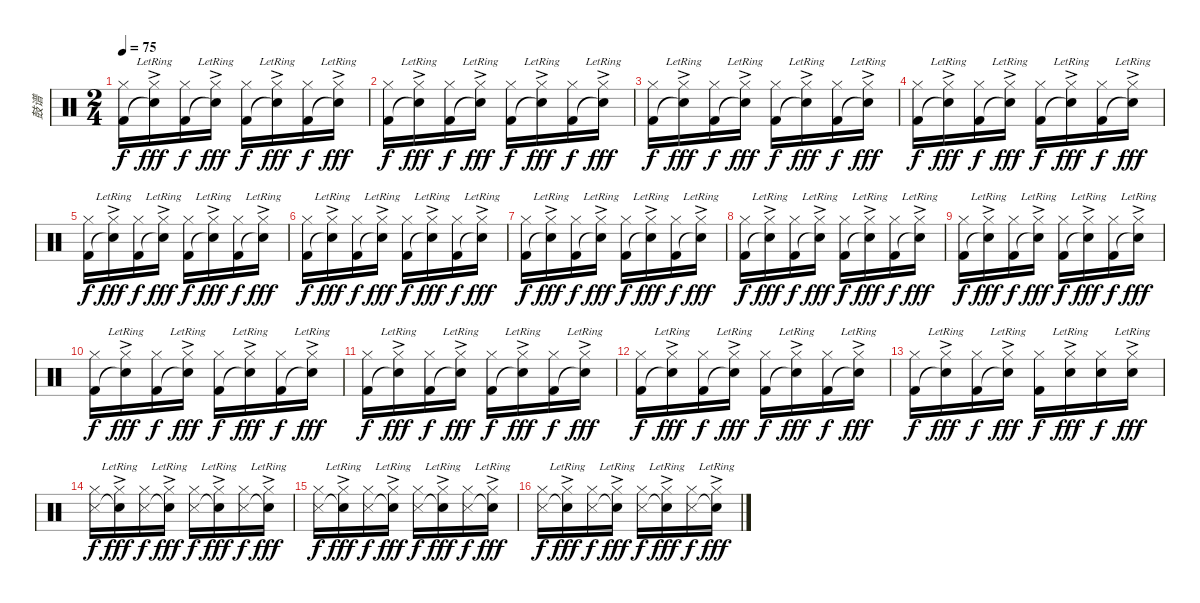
\track ("鼓谱" "鼓谱") {instrument percussion}
\staff {score}
\articulation defaults
\ts (2 4)
\tempo 75
\clef neutral
\ks c
("Kick (hit) 2" "Hi-Hat (closed)").16{dy f} ("Snare (hit)"{t} "Hi-Hat (closed)"{ac lr}).16{dy fff} ("Kick (hit) 2" "Hi-Hat (closed)").16{dy f} ("Snare (hit)"{t} "Hi-Hat (closed)"{ac lr}).16{dy fff} ("Kick (hit) 2" "Hi-Hat (closed)").16{dy f} ("Snare (hit)"{t} "Hi-Hat (closed)"{ac lr}).16{dy fff} ("Kick (hit) 2" "Hi-Hat (closed)").16{dy f} ("Snare (hit)"{t} "Hi-Hat (closed)"{ac lr}).16{dy fff} |
("Kick (hit) 2" "Hi-Hat (closed)").16{dy f} ("Snare (hit)"{t} "Hi-Hat (closed)"{ac lr}).16{dy fff} ("Kick (hit) 2" "Hi-Hat (closed)").16{dy f} ("Snare (hit)"{t} "Hi-Hat (closed)"{ac lr}).16{dy fff} ("Kick (hit) 2" "Hi-Hat (closed)").16{dy f} ("Snare (hit)"{t} "Hi-Hat (closed)"{ac lr}).16{dy fff} ("Kick (hit) 2" "Hi-Hat (closed)").16{dy f} ("Snare (hit)"{t} "Hi-Hat (closed)"{ac lr}).16{dy fff} |
("Kick (hit) 2" "Hi-Hat (closed)").16{dy f} ("Snare (hit)"{t} "Hi-Hat (closed)"{ac lr}).16{dy fff} ("Kick (hit) 2" "Hi-Hat (closed)").16{dy f} ("Snare (hit)"{t} "Hi-Hat (closed)"{ac lr}).16{dy fff} ("Kick (hit) 2" "Hi-Hat (closed)").16{dy f} ("Snare (hit)"{t} "Hi-Hat (closed)"{ac lr}).16{dy fff} ("Kick (hit) 2" "Hi-Hat (closed)").16{dy f} ("Snare (hit)"{t} "Hi-Hat (closed)"{ac lr}).16{dy fff} |
("Kick (hit) 2" "Hi-Hat (closed)").16{dy f} ("Snare (hit)"{t} "Hi-Hat (closed)"{ac lr}).16{dy fff} ("Kick (hit) 2" "Hi-Hat (closed)").16{dy f} ("Snare (hit)"{t} "Hi-Hat (closed)"{ac lr}).16{dy fff} ("Kick (hit) 2" "Hi-Hat (closed)").16{dy f} ("Snare (hit)"{t} "Hi-Hat (closed)"{ac lr}).16{dy fff} ("Kick (hit) 2" "Hi-Hat (closed)").16{dy f} ("Snare (hit)"{t} "Hi-Hat (closed)"{ac lr}).16{dy fff} |
("Kick (hit) 2" "Hi-Hat (closed)").16{dy f} ("Snare (hit)"{t} "Hi-Hat (closed)"{ac lr}).16{dy fff} ("Kick (hit) 2" "Hi-Hat (closed)").16{dy f} ("Snare (hit)"{t} "Hi-Hat (closed)"{ac lr}).16{dy fff} ("Kick (hit) 2" "Hi-Hat (closed)").16{dy f} ("Snare (hit)"{t} "Hi-Hat (closed)"{ac lr}).16{dy fff} ("Kick (hit) 2" "Hi-Hat (closed)").16{dy f} ("Snare (hit)"{t} "Hi-Hat (closed)"{ac lr}).16{dy fff} |
("Kick (hit) 2" "Hi-Hat (closed)").16{dy f} ("Snare (hit)"{t} "Hi-Hat (closed)"{ac lr}).16{dy fff} ("Kick (hit) 2" "Hi-Hat (closed)").16{dy f} ("Snare (hit)"{t} "Hi-Hat (closed)"{ac lr}).16{dy fff} ("Kick (hit) 2" "Hi-Hat (closed)").16{dy f} ("Snare (hit)"{t} "Hi-Hat (closed)"{ac lr}).16{dy fff} ("Kick (hit) 2" "Hi-Hat (closed)").16{dy f} ("Snare (hit)"{t} "Hi-Hat (closed)"{ac lr}).16{dy fff} |
("Kick (hit) 2" "Hi-Hat (closed)").16{dy f} ("Snare (hit)"{t} "Hi-Hat (closed)"{ac lr}).16{dy fff} ("Kick (hit) 2" "Hi-Hat (closed)").16{dy f} ("Snare (hit)"{t} "Hi-Hat (closed)"{ac lr}).16{dy fff} ("Kick (hit) 2" "Hi-Hat (closed)").16{dy f} ("Snare (hit)"{t} "Hi-Hat (closed)"{ac lr}).16{dy fff} ("Kick (hit) 2" "Hi-Hat (closed)").16{dy f} ("Snare (hit)"{t} "Hi-Hat (closed)"{ac lr}).16{dy fff} |
("Kick (hit) 2" "Hi-Hat (closed)").16{dy f} ("Snare (hit)"{t} "Hi-Hat (closed)"{ac lr}).16{dy fff} ("Kick (hit) 2" "Hi-Hat (closed)").16{dy f} ("Snare (hit)"{t} "Hi-Hat (closed)"{ac lr}).16{dy fff} ("Kick (hit) 2" "Hi-Hat (closed)").16{dy f} ("Snare (hit)"{t} "Hi-Hat (closed)"{ac lr}).16{dy fff} ("Kick (hit) 2" "Hi-Hat (closed)").16{dy f} ("Snare (hit)"{t} "Hi-Hat (closed)"{ac lr}).16{dy fff} |
("Kick (hit) 2" "Hi-Hat (closed)").16{dy f} ("Snare (hit)"{t} "Hi-Hat (closed)"{ac lr}).16{dy fff} ("Kick (hit) 2" "Hi-Hat (closed)").16{dy f} ("Snare (hit)"{t} "Hi-Hat (closed)"{ac lr}).16{dy fff} ("Kick (hit) 2" "Hi-Hat (closed)").16{dy f} ("Snare (hit)"{t} "Hi-Hat (closed)"{ac lr}).16{dy fff} ("Kick (hit) 2" "Hi-Hat (closed)").16{dy f} ("Snare (hit)"{t} "Hi-Hat (closed)"{ac lr}).16{dy fff} |
("Kick (hit) 2" "Hi-Hat (closed)").16{dy f} ("Snare (hit)"{t} "Hi-Hat (closed)"{ac lr}).16{dy fff} ("Kick (hit) 2" "Hi-Hat (closed)").16{dy f} ("Snare (hit)"{t} "Hi-Hat (closed)"{ac lr}).16{dy fff} ("Kick (hit) 2" "Hi-Hat (closed)").16{dy f} ("Snare (hit)"{t} "Hi-Hat (closed)"{ac lr}).16{dy fff} ("Kick (hit) 2" "Hi-Hat (closed)").16{dy f} ("Snare (hit)"{t} "Hi-Hat (closed)"{ac lr}).16{dy fff} |
("Kick (hit) 2" "Hi-Hat (closed)").16{dy f} ("Snare (hit)"{t} "Hi-Hat (closed)"{ac lr}).16{dy fff} ("Kick (hit) 2" "Hi-Hat (closed)").16{dy f} ("Snare (hit)"{t} "Hi-Hat (closed)"{ac lr}).16{dy fff} ("Kick (hit) 2" "Hi-Hat (closed)").16{dy f} ("Snare (hit)"{t} "Hi-Hat (closed)"{ac lr}).16{dy fff} ("Kick (hit) 2" "Hi-Hat (closed)").16{dy f} ("Snare (hit)"{t} "Hi-Hat (closed)"{ac lr}).16{dy fff} |
("Kick (hit) 2" "Hi-Hat (closed)").16{dy f} ("Snare (hit)"{t} "Hi-Hat (closed)"{ac lr}).16{dy fff} ("Kick (hit) 2" "Hi-Hat (closed)").16{dy f} ("Snare (hit)"{t} "Hi-Hat (closed)"{ac lr}).16{dy fff} ("Kick (hit) 2" "Hi-Hat (closed)").16{dy f} ("Snare (hit)"{t} "Hi-Hat (closed)"{ac lr}).16{dy fff} ("Kick (hit) 2" "Hi-Hat (closed)").16{dy f} ("Snare (hit)"{t} "Hi-Hat (closed)"{ac lr}).16{dy fff} |
("Kick (hit) 2" "Hi-Hat (closed)").16{dy f} ("Snare (hit)"{t} "Hi-Hat (closed)"{ac lr}).16{dy fff} ("Kick (hit) 2" "Hi-Hat (closed)").16{dy f} ("Snare (hit)"{t} "Hi-Hat (closed)"{ac lr}).16{dy fff} ("Kick (hit) 2" "Hi-Hat (closed)").16{dy f} ("Electric Snare (hit)" "Hi-Hat (closed)"{ac lr}).16{dy fff} ("Electric Snare (hit)" "Hi-Hat (closed)").16{dy f volume 14} ("Electric Snare (hit)" "Hi-Hat (closed)"{ac lr}).16{dy fff volume 16} |
("Snare (side stick) 3" "Hi-Hat (closed)").16{dy f} ("Snare (hit)"{t} "Hi-Hat (closed)"{ac lr}).16{dy fff} ("Snare (side stick) 3" "Hi-Hat (closed)").16{dy f} ("Snare (hit)"{t} "Hi-Hat (closed)"{ac lr}).16{dy fff} ("Snare (side stick) 3" "Hi-Hat (closed)").16{dy f} ("Snare (hit)"{t} "Hi-Hat (closed)"{ac lr}).16{dy fff} ("Snare (side stick) 3" "Hi-Hat (closed)").16{dy f} ("Snare (hit)"{t} "Hi-Hat (closed)"{ac lr}).16{dy fff} |
("Snare (side stick) 3" "Hi-Hat (closed)").16{dy f} ("Snare (hit)"{t} "Hi-Hat (closed)"{ac lr}).16{dy fff} ("Snare (side stick) 3" "Hi-Hat (closed)").16{dy f} ("Snare (hit)"{t} "Hi-Hat (closed)"{ac lr}).16{dy fff} ("Snare (side stick) 3" "Hi-Hat (closed)").16{dy f} ("Snare (hit)"{t} "Hi-Hat (closed)"{ac lr}).16{dy fff} ("Snare (side stick) 3" "Hi-Hat (closed)").16{dy f} ("Snare (hit)"{t} "Hi-Hat (closed)"{ac lr}).16{dy fff} |
("Snare (side stick) 3" "Hi-Hat (closed)").16{dy f} ("Snare (hit)"{t} "Hi-Hat (closed)"{ac lr}).16{dy fff} ("Snare (side stick) 3" "Hi-Hat (closed)").16{dy f} ("Snare (hit)"{t} "Hi-Hat (closed)"{ac lr}).16{dy fff} ("Snare (side stick) 3" "Hi-Hat (closed)").16{dy f} ("Snare (hit)"{t} "Hi-Hat (closed)"{ac lr}).16{dy fff} ("Snare (side stick) 3" "Hi-Hat (closed)").16{dy f} ("Snare (hit)"{t} "Hi-Hat (closed)"{ac lr}).16{dy fff}
